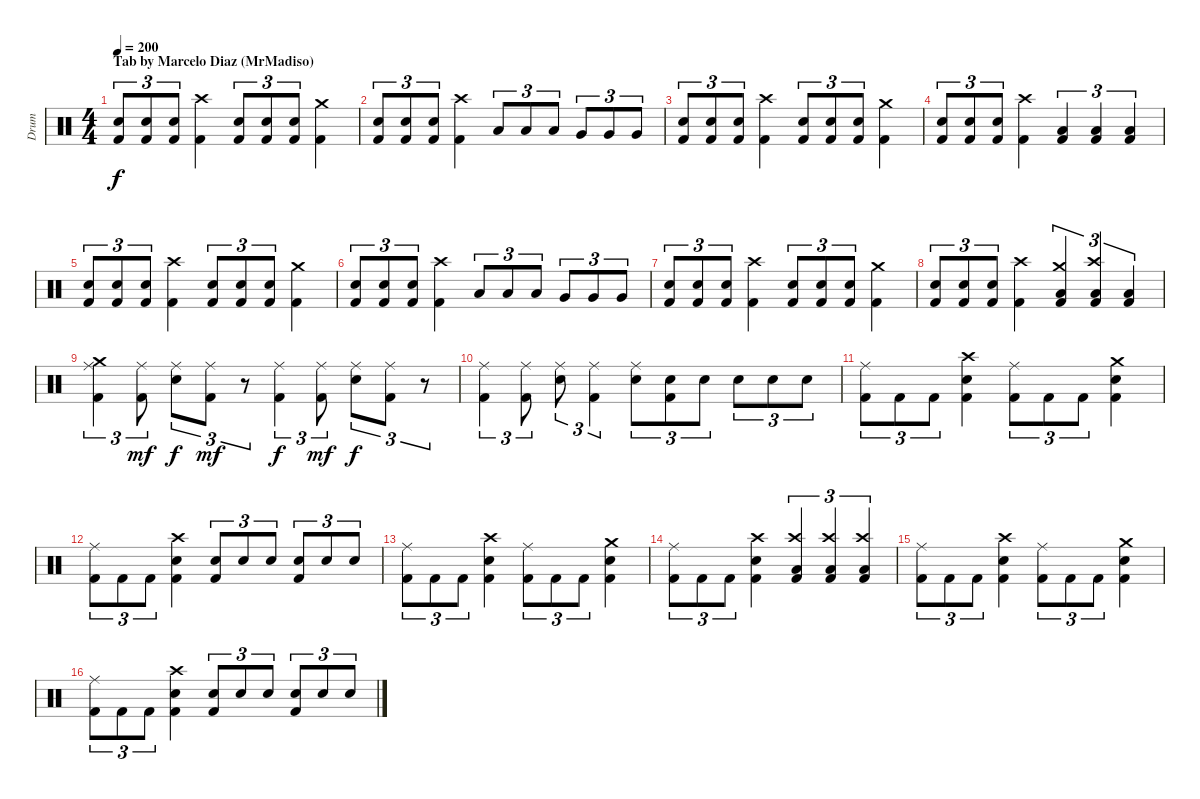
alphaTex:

\track ("Drum" "Drum") {instrument percussion}
\staff {score}
\articulation defaults
\ts (4 4)
\section ("" "Tab by Marcelo Diaz (MrMadiso)")
\tempo 200
\clef neutral
\ks c
("Electric Snare (hit)" "Kick (hit) 2").8{tu (3 2) dy f} ("Electric Snare (hit)" "Kick (hit) 2").8{tu (3 2)} ("Electric Snare (hit)" "Kick (hit) 2").8{tu (3 2)} ("Crash high (hit)" "Kick (hit) 2").4 ("Electric Snare (hit)" "Kick (hit) 2").8{tu (3 2)} ("Electric Snare (hit)" "Kick (hit) 2").8{tu (3 2)} ("Electric Snare (hit)" "Kick (hit) 2").8{tu (3 2)} ("Crash medium (hit)" "Kick (hit) 2").4 |
("Electric Snare (hit)" "Kick (hit) 2").8{tu (3 2)} ("Electric Snare (hit)" "Kick (hit) 2").8{tu (3 2)} ("Electric Snare (hit)" "Kick (hit) 2").8{tu (3 2)} ("Crash high (hit)" "Kick (hit) 2").4 "Low Tom (hit)".8{tu (3 2)} "Low Tom (hit)".8{tu (3 2)} "Low Tom (hit)".8{tu (3 2)} "Very Low Tom (hit)".8{tu (3 2)} "Very Low Tom (hit)".8{tu (3 2)} "Very Low Tom (hit)".8{tu (3 2)} |
("Electric Snare (hit)" "Kick (hit) 2").8{tu (3 2)} ("Electric Snare (hit)" "Kick (hit) 2").8{tu (3 2)} ("Electric Snare (hit)" "Kick (hit) 2").8{tu (3 2)} ("Crash high (hit)" "Kick (hit) 2").4 ("Electric Snare (hit)" "Kick (hit) 2").8{tu (3 2)} ("Electric Snare (hit)" "Kick (hit) 2").8{tu (3 2)} ("Electric Snare (hit)" "Kick (hit) 2").8{tu (3 2)} ("Crash medium (hit)" "Kick (hit) 2").4 |
("Electric Snare (hit)" "Kick (hit) 2").8{tu (3 2)} ("Electric Snare (hit)" "Kick (hit) 2").8{tu (3 2)} ("Electric Snare (hit)" "Kick (hit) 2").8{tu (3 2)} ("Crash high (hit)" "Kick (hit) 2").4 ("Low Floor Tom (hit)" "Kick (hit) 2").4{tu (3 2)} ("Low Floor Tom (hit)" "Kick (hit) 2").4{tu (3 2)} ("Low Floor Tom (hit)" "Kick (hit) 2").4{tu (3 2)} |
("Electric Snare (hit)" "Kick (hit) 2").8{tu (3 2)} ("Electric Snare (hit)" "Kick (hit) 2").8{tu (3 2)} ("Electric Snare (hit)" "Kick (hit) 2").8{tu (3 2)} ("Crash high (hit)" "Kick (hit) 2").4 ("Electric Snare (hit)" "Kick (hit) 2").8{tu (3 2)} ("Electric Snare (hit)" "Kick (hit) 2").8{tu (3 2)} ("Electric Snare (hit)" "Kick (hit) 2").8{tu (3 2)} ("Crash medium (hit)" "Kick (hit) 2").4 |
("Electric Snare (hit)" "Kick (hit) 2").8{tu (3 2)} ("Electric Snare (hit)" "Kick (hit) 2").8{tu (3 2)} ("Electric Snare (hit)" "Kick (hit) 2").8{tu (3 2)} ("Crash high (hit)" "Kick (hit) 2").4 "Low Tom (hit)".8{tu (3 2)} "Low Tom (hit)".8{tu (3 2)} "Low Tom (hit)".8{tu (3 2)} "Very Low Tom (hit)".8{tu (3 2)} "Very Low Tom (hit)".8{tu (3 2)} "Very Low Tom (hit)".8{tu (3 2)} |
("Electric Snare (hit)" "Kick (hit) 2").8{tu (3 2)} ("Electric Snare (hit)" "Kick (hit) 2").8{tu (3 2)} ("Electric Snare (hit)" "Kick (hit) 2").8{tu (3 2)} ("Crash high (hit)" "Kick (hit) 2").4 ("Electric Snare (hit)" "Kick (hit) 2").8{tu (3 2)} ("Electric Snare (hit)" "Kick (hit) 2").8{tu (3 2)} ("Electric Snare (hit)" "Kick (hit) 2").8{tu (3 2)} ("Crash medium (hit)" "Kick (hit) 2").4 |
("Electric Snare (hit)" "Kick (hit) 2").8{tu (3 2)} ("Electric Snare (hit)" "Kick (hit) 2").8{tu (3 2)} ("Electric Snare (hit)" "Kick (hit) 2").8{tu (3 2)} ("Crash high (hit)" "Kick (hit) 2").4 ("Crash medium (hit)" "Low Floor Tom (hit)" "Kick (hit) 2").4{tu (3 2)} ("Crash high (hit)" "Low Floor Tom (hit)" "Kick (hit) 2").4{tu (3 2)} ("Low Floor Tom (hit)" "Kick (hit) 2").4{tu (3 2)} |
("Ride (middle)" "Crash medium (hit)" "Kick (hit) 2").4{tu (3 2)} ("Ride (middle)" "Kick (hit) 2").8{tu (3 2) dy mf} ("Ride (middle)" "Electric Snare (hit)").8{tu (3 2) dy f} ("Ride (middle)" "Kick (hit) 2").8{tu (3 2) dy mf} r.8{tu (3 2)} ("Ride (middle)" "Kick (hit) 2").4{tu (3 2) dy f} ("Ride (middle)" "Kick (hit) 2").8{tu (3 2) dy mf} ("Ride (middle)" "Electric Snare (hit)").8{tu (3 2) dy f} ("Ride (middle)" "Kick (hit) 2").8{tu (3 2)} r.8{tu (3 2)} |
("Ride (middle)" "Kick (hit) 2").4{tu (3 2)} ("Ride (middle)" "Kick (hit) 2").8{tu (3 2)} ("Ride (middle)" "Electric Snare (hit)").8{tu (3 2)} ("Ride (middle)" "Kick (hit) 2").4{tu (3 2)} ("Ride (middle)" "Electric Snare (hit)").8{tu (3 2)} ("Electric Snare (hit)" "Kick (hit) 2").8{tu (3 2)} "Electric Snare (hit)".8{tu (3 2)} "Electric Snare (hit)".8{tu (3 2)} "Electric Snare (hit)".8{tu (3 2)} "Electric Snare (hit)".8{tu (3 2)} |
("Ride (middle)" "Kick (hit) 2").8{tu (3 2)} "Kick (hit) 2".8{tu (3 2)} "Kick (hit) 2".8{tu (3 2)} ("Crash high (hit)" "Electric Snare (hit)" "Kick (hit) 2").4 ("Ride (middle)" "Kick (hit) 2").8{tu (3 2)} "Kick (hit) 2".8{tu (3 2)} "Kick (hit) 2".8{tu (3 2)} ("Crash medium (hit)" "Electric Snare (hit)" "Kick (hit) 2").4 |
("Ride (middle)" "Kick (hit) 2").8{tu (3 2)} "Kick (hit) 2".8{tu (3 2)} "Kick (hit) 2".8{tu (3 2)} ("Crash high (hit)" "Electric Snare (hit)" "Kick (hit) 2").4 ("Electric Snare (hit)" "Kick (hit) 2").8{tu (3 2)} "Electric Snare (hit)".8{tu (3 2)} "Electric Snare (hit)".8{tu (3 2)} ("Electric Snare (hit)" "Kick (hit) 2").8{tu (3 2)} "Electric Snare (hit)".8{tu (3 2)} "Electric Snare (hit)".8{tu (3 2)} |
("Ride (middle)" "Kick (hit) 2").8{tu (3 2)} "Kick (hit) 2".8{tu (3 2)} "Kick (hit) 2".8{tu (3 2)} ("Crash high (hit)" "Electric Snare (hit)" "Kick (hit) 2").4 ("Ride (middle)" "Kick (hit) 2").8{tu (3 2)} "Kick (hit) 2".8{tu (3 2)} "Kick (hit) 2".8{tu (3 2)} ("Crash medium (hit)" "Electric Snare (hit)" "Kick (hit) 2").4 |
("Ride (middle)" "Kick (hit) 2").8{tu (3 2)} "Kick (hit) 2".8{tu (3 2)} "Kick (hit) 2".8{tu (3 2)} ("Crash high (hit)" "Electric Snare (hit)" "Kick (hit) 2").4 ("Crash high (hit)" "Low Floor Tom (hit)" "Kick (hit) 2").4{tu (3 2)} ("Crash high (hit)" "Low Floor Tom (hit)" "Kick (hit) 2").4{tu (3 2)} ("Crash high (hit)" "Low Floor Tom (hit)" "Kick (hit) 2").4{tu (3 2)} |
("Ride (middle)" "Kick (hit) 2").8{tu (3 2)} "Kick (hit) 2".8{tu (3 2)} "Kick (hit) 2".8{tu (3 2)} ("Crash high (hit)" "Electric Snare (hit)" "Kick (hit) 2").4 ("Ride (middle)" "Kick (hit) 2").8{tu (3 2)} "Kick (hit) 2".8{tu (3 2)} "Kick (hit) 2".8{tu (3 2)} ("Crash medium (hit)" "Electric Snare (hit)" "Kick (hit) 2").4 |
("Ride (middle)" "Kick (hit) 2").8{tu (3 2)} "Kick (hit) 2".8{tu (3 2)} "Kick (hit) 2".8{tu (3 2)} ("Crash high (hit)" "Electric Snare (hit)" "Kick (hit) 2").4 ("Electric Snare (hit)" "Kick (hit) 2").8{tu (3 2)} "Electric Snare (hit)".8{tu (3 2)} "Electric Snare (hit)".8{tu (3 2)} ("Electric Snare (hit)" "Kick (hit) 2").8{tu (3 2)} "Electric Snare (hit)".8{tu (3 2)} "Electric Snare (hit)".8{tu (3 2)}
